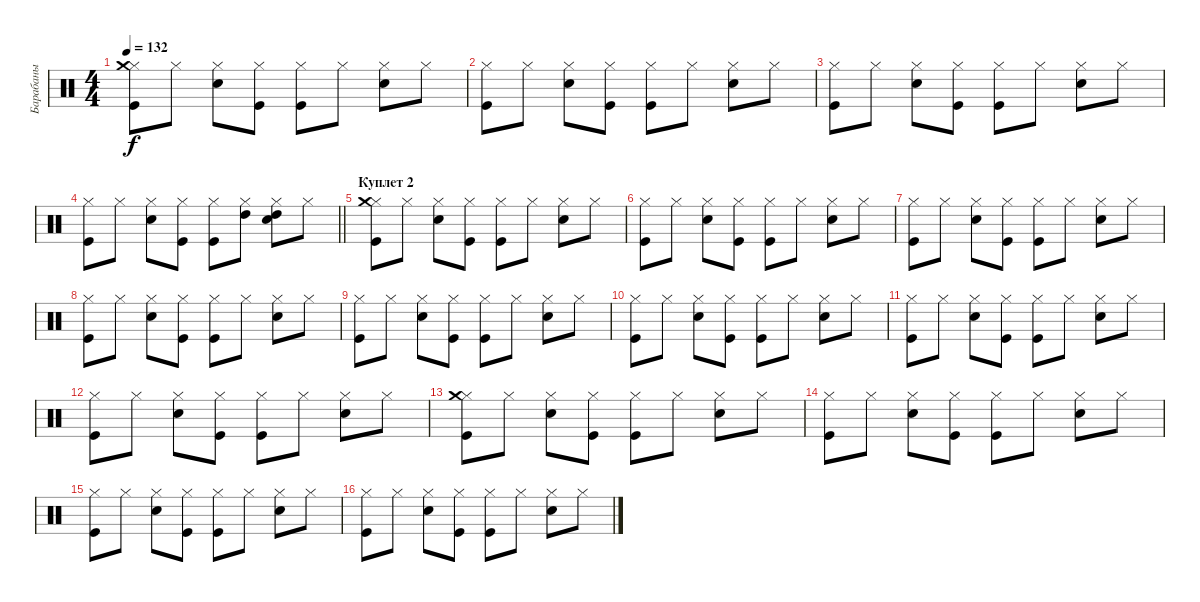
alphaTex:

\track ("Барабаны" "Барабаны") {instrument percussion}
\staff {score}
\articulation defaults
\ts (4 4)
\tempo 132
\clef neutral
\ks c
("Kick (hit)" "Hi-Hat (closed)" "Crash medium (hit)").8{dy f} "Hi-Hat (closed)".8 ("Snare (hit) 2" "Hi-Hat (closed)").8 ("Kick (hit)" "Hi-Hat (closed)").8 ("Kick (hit)" "Hi-Hat (closed)").8 "Hi-Hat (closed)".8 ("Snare (hit) 2" "Hi-Hat (closed)").8 "Hi-Hat (closed)".8 |
("Kick (hit)" "Hi-Hat (closed)").8 "Hi-Hat (closed)".8 ("Snare (hit) 2" "Hi-Hat (closed)").8 ("Kick (hit)" "Hi-Hat (closed)").8 ("Kick (hit)" "Hi-Hat (closed)").8 "Hi-Hat (closed)".8 ("Snare (hit) 2" "Hi-Hat (closed)").8 "Hi-Hat (closed)".8 |
("Kick (hit)" "Hi-Hat (closed)").8 "Hi-Hat (closed)".8 ("Snare (hit) 2" "Hi-Hat (closed)").8 ("Kick (hit)" "Hi-Hat (closed)").8 ("Kick (hit)" "Hi-Hat (closed)").8 "Hi-Hat (closed)".8 ("Snare (hit) 2" "Hi-Hat (closed)").8 "Hi-Hat (closed)".8 |
\barLineRight lightlight
("Kick (hit)" "Hi-Hat (closed)").8 "Hi-Hat (closed)".8 ("Snare (hit) 2" "Hi-Hat (closed)").8 ("Kick (hit)" "Hi-Hat (closed)").8 ("Kick (hit)" "Hi-Hat (closed)").8 ("Hi-Hat (closed)" "High Tom (hit)").8 ("Snare (hit) 2" "Hi-Hat (closed)" "High Tom (hit)").8 "Hi-Hat (closed)".8 |
\section ("" "Куплет 2")
("Kick (hit)" "Hi-Hat (closed)" "Crash medium (hit)").8 "Hi-Hat (closed)".8 ("Snare (hit) 2" "Hi-Hat (closed)").8 ("Kick (hit)" "Hi-Hat (closed)").8 ("Kick (hit)" "Hi-Hat (closed)").8 "Hi-Hat (closed)".8 ("Snare (hit) 2" "Hi-Hat (closed)").8 "Hi-Hat (closed)".8 |
("Kick (hit)" "Hi-Hat (closed)").8 "Hi-Hat (closed)".8 ("Snare (hit) 2" "Hi-Hat (closed)").8 ("Kick (hit)" "Hi-Hat (closed)").8 ("Kick (hit)" "Hi-Hat (closed)").8 "Hi-Hat (closed)".8 ("Snare (hit) 2" "Hi-Hat (closed)").8 "Hi-Hat (closed)".8 |
("Kick (hit)" "Hi-Hat (closed)").8 "Hi-Hat (closed)".8 ("Snare (hit) 2" "Hi-Hat (closed)").8 ("Kick (hit)" "Hi-Hat (closed)").8 ("Kick (hit)" "Hi-Hat (closed)").8 "Hi-Hat (closed)".8 ("Snare (hit) 2" "Hi-Hat (closed)").8 "Hi-Hat (closed)".8 |
("Kick (hit)" "Hi-Hat (closed)").8 "Hi-Hat (closed)".8 ("Snare (hit) 2" "Hi-Hat (closed)").8 ("Kick (hit)" "Hi-Hat (closed)").8 ("Kick (hit)" "Hi-Hat (closed)").8 "Hi-Hat (closed)".8 ("Snare (hit) 2" "Hi-Hat (closed)").8 "Hi-Hat (closed)".8 |
("Kick (hit)" "Hi-Hat (closed)").8 "Hi-Hat (closed)".8 ("Snare (hit) 2" "Hi-Hat (closed)").8 ("Kick (hit)" "Hi-Hat (closed)").8 ("Kick (hit)" "Hi-Hat (closed)").8 "Hi-Hat (closed)".8 ("Snare (hit) 2" "Hi-Hat (closed)").8 "Hi-Hat (closed)".8 |
("Kick (hit)" "Hi-Hat (closed)").8 "Hi-Hat (closed)".8 ("Snare (hit) 2" "Hi-Hat (closed)").8 ("Kick (hit)" "Hi-Hat (closed)").8 ("Kick (hit)" "Hi-Hat (closed)").8 "Hi-Hat (closed)".8 ("Snare (hit) 2" "Hi-Hat (closed)").8 "Hi-Hat (closed)".8 |
("Kick (hit)" "Hi-Hat (closed)").8 "Hi-Hat (closed)".8 ("Snare (hit) 2" "Hi-Hat (closed)").8 ("Kick (hit)" "Hi-Hat (closed)").8 ("Kick (hit)" "Hi-Hat (closed)").8 "Hi-Hat (closed)".8 ("Snare (hit) 2" "Hi-Hat (closed)").8 "Hi-Hat (closed)".8 |
("Kick (hit)" "Hi-Hat (closed)").8 "Hi-Hat (closed)".8 ("Snare (hit) 2" "Hi-Hat (closed)").8 ("Kick (hit)" "Hi-Hat (closed)").8 ("Kick (hit)" "Hi-Hat (closed)").8 "Hi-Hat (closed)".8 ("Snare (hit) 2" "Hi-Hat (closed)").8 "Hi-Hat (closed)".8 |
("Kick (hit)" "Hi-Hat (closed)" "Crash medium (hit)").8 "Hi-Hat (closed)".8 ("Snare (hit) 2" "Hi-Hat (closed)").8 ("Kick (hit)" "Hi-Hat (closed)").8 ("Kick (hit)" "Hi-Hat (closed)").8 "Hi-Hat (closed)".8 ("Snare (hit) 2" "Hi-Hat (closed)").8 "Hi-Hat (closed)".8 |
("Kick (hit)" "Hi-Hat (closed)").8 "Hi-Hat (closed)".8 ("Snare (hit) 2" "Hi-Hat (closed)").8 ("Kick (hit)" "Hi-Hat (closed)").8 ("Kick (hit)" "Hi-Hat (closed)").8 "Hi-Hat (closed)".8 ("Snare (hit) 2" "Hi-Hat (closed)").8 "Hi-Hat (closed)".8 |
("Kick (hit)" "Hi-Hat (closed)").8 "Hi-Hat (closed)".8 ("Snare (hit) 2" "Hi-Hat (closed)").8 ("Kick (hit)" "Hi-Hat (closed)").8 ("Kick (hit)" "Hi-Hat (closed)").8 "Hi-Hat (closed)".8 ("Snare (hit) 2" "Hi-Hat (closed)").8 "Hi-Hat (closed)".8 |
("Kick (hit)" "Hi-Hat (closed)").8 "Hi-Hat (closed)".8 ("Snare (hit) 2" "Hi-Hat (closed)").8 ("Kick (hit)" "Hi-Hat (closed)").8 ("Kick (hit)" "Hi-Hat (closed)").8 "Hi-Hat (closed)".8 ("Snare (hit) 2" "Hi-Hat (closed)").8 "Hi-Hat (closed)".8
